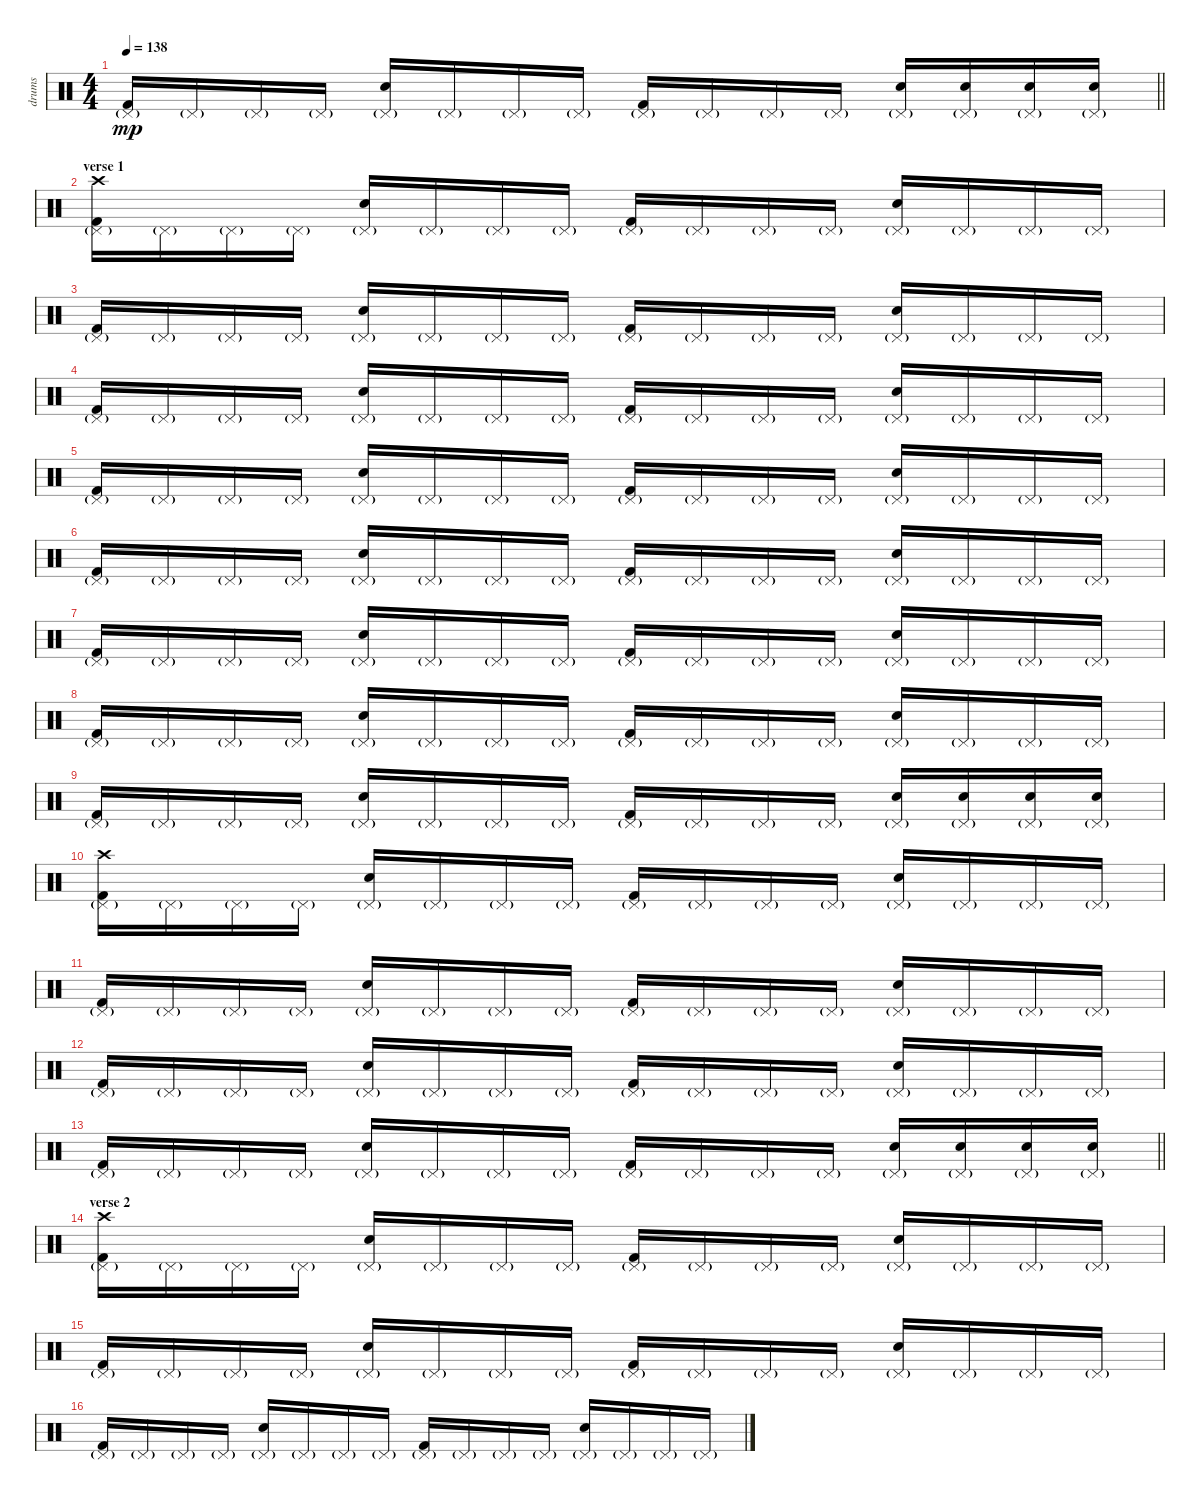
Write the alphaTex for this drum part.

\track ("drums" "drums") {instrument percussion}
\staff {score}
\articulation defaults
\ts (4 4)
\tempo 138
\clef neutral
\barLineRight lightlight
\ks c
("Kick (hit) 2" "Pedal Hi-Hat (hit)"{g}).16{dy mp} "Pedal Hi-Hat (hit)"{g}.16 "Pedal Hi-Hat (hit)"{g}.16 "Pedal Hi-Hat (hit)"{g}.16 ("Electric Snare (hit)" "Pedal Hi-Hat (hit)"{g}).16 "Pedal Hi-Hat (hit)"{g}.16 "Pedal Hi-Hat (hit)"{g}.16 "Pedal Hi-Hat (hit)"{g}.16 ("Kick (hit) 2" "Pedal Hi-Hat (hit)"{g}).16 "Pedal Hi-Hat (hit)"{g}.16 "Pedal Hi-Hat (hit)"{g}.16 "Pedal Hi-Hat (hit)"{g}.16 ("Electric Snare (hit)" "Pedal Hi-Hat (hit)"{g}).16 ("Electric Snare (hit)" "Pedal Hi-Hat (hit)"{g}).16 ("Electric Snare (hit)" "Pedal Hi-Hat (hit)"{g}).16 ("Electric Snare (hit)" "Pedal Hi-Hat (hit)"{g}).16 |
\section ("" "verse 1")
("Kick (hit) 2" "Pedal Hi-Hat (hit)"{g} "Crash high (hit)").16 "Pedal Hi-Hat (hit)"{g}.16 "Pedal Hi-Hat (hit)"{g}.16 "Pedal Hi-Hat (hit)"{g}.16 ("Electric Snare (hit)" "Pedal Hi-Hat (hit)"{g}).16 "Pedal Hi-Hat (hit)"{g}.16 "Pedal Hi-Hat (hit)"{g}.16 "Pedal Hi-Hat (hit)"{g}.16 ("Kick (hit) 2" "Pedal Hi-Hat (hit)"{g}).16 "Pedal Hi-Hat (hit)"{g}.16 "Pedal Hi-Hat (hit)"{g}.16 "Pedal Hi-Hat (hit)"{g}.16 ("Electric Snare (hit)" "Pedal Hi-Hat (hit)"{g}).16 "Pedal Hi-Hat (hit)"{g}.16 "Pedal Hi-Hat (hit)"{g}.16 "Pedal Hi-Hat (hit)"{g}.16 |
("Kick (hit) 2" "Pedal Hi-Hat (hit)"{g}).16 "Pedal Hi-Hat (hit)"{g}.16 "Pedal Hi-Hat (hit)"{g}.16 "Pedal Hi-Hat (hit)"{g}.16 ("Electric Snare (hit)" "Pedal Hi-Hat (hit)"{g}).16 "Pedal Hi-Hat (hit)"{g}.16 "Pedal Hi-Hat (hit)"{g}.16 "Pedal Hi-Hat (hit)"{g}.16 ("Kick (hit) 2" "Pedal Hi-Hat (hit)"{g}).16 "Pedal Hi-Hat (hit)"{g}.16 "Pedal Hi-Hat (hit)"{g}.16 "Pedal Hi-Hat (hit)"{g}.16 ("Electric Snare (hit)" "Pedal Hi-Hat (hit)"{g}).16 "Pedal Hi-Hat (hit)"{g}.16 "Pedal Hi-Hat (hit)"{g}.16 "Pedal Hi-Hat (hit)"{g}.16 |
("Kick (hit) 2" "Pedal Hi-Hat (hit)"{g}).16 "Pedal Hi-Hat (hit)"{g}.16 "Pedal Hi-Hat (hit)"{g}.16 "Pedal Hi-Hat (hit)"{g}.16 ("Electric Snare (hit)" "Pedal Hi-Hat (hit)"{g}).16 "Pedal Hi-Hat (hit)"{g}.16 "Pedal Hi-Hat (hit)"{g}.16 "Pedal Hi-Hat (hit)"{g}.16 ("Kick (hit) 2" "Pedal Hi-Hat (hit)"{g}).16 "Pedal Hi-Hat (hit)"{g}.16 "Pedal Hi-Hat (hit)"{g}.16 "Pedal Hi-Hat (hit)"{g}.16 ("Electric Snare (hit)" "Pedal Hi-Hat (hit)"{g}).16 "Pedal Hi-Hat (hit)"{g}.16 "Pedal Hi-Hat (hit)"{g}.16 "Pedal Hi-Hat (hit)"{g}.16 |
("Kick (hit) 2" "Pedal Hi-Hat (hit)"{g}).16 "Pedal Hi-Hat (hit)"{g}.16 "Pedal Hi-Hat (hit)"{g}.16 "Pedal Hi-Hat (hit)"{g}.16 ("Electric Snare (hit)" "Pedal Hi-Hat (hit)"{g}).16 "Pedal Hi-Hat (hit)"{g}.16 "Pedal Hi-Hat (hit)"{g}.16 "Pedal Hi-Hat (hit)"{g}.16 ("Kick (hit) 2" "Pedal Hi-Hat (hit)"{g}).16 "Pedal Hi-Hat (hit)"{g}.16 "Pedal Hi-Hat (hit)"{g}.16 "Pedal Hi-Hat (hit)"{g}.16 ("Electric Snare (hit)" "Pedal Hi-Hat (hit)"{g}).16 "Pedal Hi-Hat (hit)"{g}.16 "Pedal Hi-Hat (hit)"{g}.16 "Pedal Hi-Hat (hit)"{g}.16 |
("Kick (hit) 2" "Pedal Hi-Hat (hit)"{g}).16 "Pedal Hi-Hat (hit)"{g}.16 "Pedal Hi-Hat (hit)"{g}.16 "Pedal Hi-Hat (hit)"{g}.16 ("Electric Snare (hit)" "Pedal Hi-Hat (hit)"{g}).16 "Pedal Hi-Hat (hit)"{g}.16 "Pedal Hi-Hat (hit)"{g}.16 "Pedal Hi-Hat (hit)"{g}.16 ("Kick (hit) 2" "Pedal Hi-Hat (hit)"{g}).16 "Pedal Hi-Hat (hit)"{g}.16 "Pedal Hi-Hat (hit)"{g}.16 "Pedal Hi-Hat (hit)"{g}.16 ("Electric Snare (hit)" "Pedal Hi-Hat (hit)"{g}).16 "Pedal Hi-Hat (hit)"{g}.16 "Pedal Hi-Hat (hit)"{g}.16 "Pedal Hi-Hat (hit)"{g}.16 |
("Kick (hit) 2" "Pedal Hi-Hat (hit)"{g}).16 "Pedal Hi-Hat (hit)"{g}.16 "Pedal Hi-Hat (hit)"{g}.16 "Pedal Hi-Hat (hit)"{g}.16 ("Electric Snare (hit)" "Pedal Hi-Hat (hit)"{g}).16 "Pedal Hi-Hat (hit)"{g}.16 "Pedal Hi-Hat (hit)"{g}.16 "Pedal Hi-Hat (hit)"{g}.16 ("Kick (hit) 2" "Pedal Hi-Hat (hit)"{g}).16 "Pedal Hi-Hat (hit)"{g}.16 "Pedal Hi-Hat (hit)"{g}.16 "Pedal Hi-Hat (hit)"{g}.16 ("Electric Snare (hit)" "Pedal Hi-Hat (hit)"{g}).16 "Pedal Hi-Hat (hit)"{g}.16 "Pedal Hi-Hat (hit)"{g}.16 "Pedal Hi-Hat (hit)"{g}.16 |
("Kick (hit) 2" "Pedal Hi-Hat (hit)"{g}).16 "Pedal Hi-Hat (hit)"{g}.16 "Pedal Hi-Hat (hit)"{g}.16 "Pedal Hi-Hat (hit)"{g}.16 ("Electric Snare (hit)" "Pedal Hi-Hat (hit)"{g}).16 "Pedal Hi-Hat (hit)"{g}.16 "Pedal Hi-Hat (hit)"{g}.16 "Pedal Hi-Hat (hit)"{g}.16 ("Kick (hit) 2" "Pedal Hi-Hat (hit)"{g}).16 "Pedal Hi-Hat (hit)"{g}.16 "Pedal Hi-Hat (hit)"{g}.16 "Pedal Hi-Hat (hit)"{g}.16 ("Electric Snare (hit)" "Pedal Hi-Hat (hit)"{g}).16 "Pedal Hi-Hat (hit)"{g}.16 "Pedal Hi-Hat (hit)"{g}.16 "Pedal Hi-Hat (hit)"{g}.16 |
("Kick (hit) 2" "Pedal Hi-Hat (hit)"{g}).16 "Pedal Hi-Hat (hit)"{g}.16 "Pedal Hi-Hat (hit)"{g}.16 "Pedal Hi-Hat (hit)"{g}.16 ("Electric Snare (hit)" "Pedal Hi-Hat (hit)"{g}).16 "Pedal Hi-Hat (hit)"{g}.16 "Pedal Hi-Hat (hit)"{g}.16 "Pedal Hi-Hat (hit)"{g}.16 ("Kick (hit) 2" "Pedal Hi-Hat (hit)"{g}).16 "Pedal Hi-Hat (hit)"{g}.16 "Pedal Hi-Hat (hit)"{g}.16 "Pedal Hi-Hat (hit)"{g}.16 ("Electric Snare (hit)" "Pedal Hi-Hat (hit)"{g}).16 ("Electric Snare (hit)" "Pedal Hi-Hat (hit)"{g}).16 ("Electric Snare (hit)" "Pedal Hi-Hat (hit)"{g}).16 ("Electric Snare (hit)" "Pedal Hi-Hat (hit)"{g}).16 |
("Kick (hit) 2" "Pedal Hi-Hat (hit)"{g} "Crash high (hit)").16 "Pedal Hi-Hat (hit)"{g}.16 "Pedal Hi-Hat (hit)"{g}.16 "Pedal Hi-Hat (hit)"{g}.16 ("Electric Snare (hit)" "Pedal Hi-Hat (hit)"{g}).16 "Pedal Hi-Hat (hit)"{g}.16 "Pedal Hi-Hat (hit)"{g}.16 "Pedal Hi-Hat (hit)"{g}.16 ("Kick (hit) 2" "Pedal Hi-Hat (hit)"{g}).16 "Pedal Hi-Hat (hit)"{g}.16 "Pedal Hi-Hat (hit)"{g}.16 "Pedal Hi-Hat (hit)"{g}.16 ("Electric Snare (hit)" "Pedal Hi-Hat (hit)"{g}).16 "Pedal Hi-Hat (hit)"{g}.16 "Pedal Hi-Hat (hit)"{g}.16 "Pedal Hi-Hat (hit)"{g}.16 |
("Kick (hit) 2" "Pedal Hi-Hat (hit)"{g}).16 "Pedal Hi-Hat (hit)"{g}.16 "Pedal Hi-Hat (hit)"{g}.16 "Pedal Hi-Hat (hit)"{g}.16 ("Electric Snare (hit)" "Pedal Hi-Hat (hit)"{g}).16 "Pedal Hi-Hat (hit)"{g}.16 "Pedal Hi-Hat (hit)"{g}.16 "Pedal Hi-Hat (hit)"{g}.16 ("Kick (hit) 2" "Pedal Hi-Hat (hit)"{g}).16 "Pedal Hi-Hat (hit)"{g}.16 "Pedal Hi-Hat (hit)"{g}.16 "Pedal Hi-Hat (hit)"{g}.16 ("Electric Snare (hit)" "Pedal Hi-Hat (hit)"{g}).16 "Pedal Hi-Hat (hit)"{g}.16 "Pedal Hi-Hat (hit)"{g}.16 "Pedal Hi-Hat (hit)"{g}.16 |
("Kick (hit) 2" "Pedal Hi-Hat (hit)"{g}).16 "Pedal Hi-Hat (hit)"{g}.16 "Pedal Hi-Hat (hit)"{g}.16 "Pedal Hi-Hat (hit)"{g}.16 ("Electric Snare (hit)" "Pedal Hi-Hat (hit)"{g}).16 "Pedal Hi-Hat (hit)"{g}.16 "Pedal Hi-Hat (hit)"{g}.16 "Pedal Hi-Hat (hit)"{g}.16 ("Kick (hit) 2" "Pedal Hi-Hat (hit)"{g}).16 "Pedal Hi-Hat (hit)"{g}.16 "Pedal Hi-Hat (hit)"{g}.16 "Pedal Hi-Hat (hit)"{g}.16 ("Electric Snare (hit)" "Pedal Hi-Hat (hit)"{g}).16 "Pedal Hi-Hat (hit)"{g}.16 "Pedal Hi-Hat (hit)"{g}.16 "Pedal Hi-Hat (hit)"{g}.16 |
\barLineRight lightlight
("Kick (hit) 2" "Pedal Hi-Hat (hit)"{g}).16 "Pedal Hi-Hat (hit)"{g}.16 "Pedal Hi-Hat (hit)"{g}.16 "Pedal Hi-Hat (hit)"{g}.16 ("Electric Snare (hit)" "Pedal Hi-Hat (hit)"{g}).16 "Pedal Hi-Hat (hit)"{g}.16 "Pedal Hi-Hat (hit)"{g}.16 "Pedal Hi-Hat (hit)"{g}.16 ("Kick (hit) 2" "Pedal Hi-Hat (hit)"{g}).16 "Pedal Hi-Hat (hit)"{g}.16 "Pedal Hi-Hat (hit)"{g}.16 "Pedal Hi-Hat (hit)"{g}.16 ("Electric Snare (hit)" "Pedal Hi-Hat (hit)"{g}).16 ("Electric Snare (hit)" "Pedal Hi-Hat (hit)"{g}).16 ("Electric Snare (hit)" "Pedal Hi-Hat (hit)"{g}).16 ("Electric Snare (hit)" "Pedal Hi-Hat (hit)"{g}).16 |
\section ("" "verse 2")
("Kick (hit) 2" "Pedal Hi-Hat (hit)"{g} "Crash high (hit)").16 "Pedal Hi-Hat (hit)"{g}.16 "Pedal Hi-Hat (hit)"{g}.16 "Pedal Hi-Hat (hit)"{g}.16 ("Electric Snare (hit)" "Pedal Hi-Hat (hit)"{g}).16 "Pedal Hi-Hat (hit)"{g}.16 "Pedal Hi-Hat (hit)"{g}.16 "Pedal Hi-Hat (hit)"{g}.16 ("Kick (hit) 2" "Pedal Hi-Hat (hit)"{g}).16 "Pedal Hi-Hat (hit)"{g}.16 "Pedal Hi-Hat (hit)"{g}.16 "Pedal Hi-Hat (hit)"{g}.16 ("Electric Snare (hit)" "Pedal Hi-Hat (hit)"{g}).16 "Pedal Hi-Hat (hit)"{g}.16 "Pedal Hi-Hat (hit)"{g}.16 "Pedal Hi-Hat (hit)"{g}.16 |
("Kick (hit) 2" "Pedal Hi-Hat (hit)"{g}).16 "Pedal Hi-Hat (hit)"{g}.16 "Pedal Hi-Hat (hit)"{g}.16 "Pedal Hi-Hat (hit)"{g}.16 ("Electric Snare (hit)" "Pedal Hi-Hat (hit)"{g}).16 "Pedal Hi-Hat (hit)"{g}.16 "Pedal Hi-Hat (hit)"{g}.16 "Pedal Hi-Hat (hit)"{g}.16 ("Kick (hit) 2" "Pedal Hi-Hat (hit)"{g}).16 "Pedal Hi-Hat (hit)"{g}.16 "Pedal Hi-Hat (hit)"{g}.16 "Pedal Hi-Hat (hit)"{g}.16 ("Electric Snare (hit)" "Pedal Hi-Hat (hit)"{g}).16 "Pedal Hi-Hat (hit)"{g}.16 "Pedal Hi-Hat (hit)"{g}.16 "Pedal Hi-Hat (hit)"{g}.16 |
("Kick (hit) 2" "Pedal Hi-Hat (hit)"{g}).16 "Pedal Hi-Hat (hit)"{g}.16 "Pedal Hi-Hat (hit)"{g}.16 "Pedal Hi-Hat (hit)"{g}.16 ("Electric Snare (hit)" "Pedal Hi-Hat (hit)"{g}).16 "Pedal Hi-Hat (hit)"{g}.16 "Pedal Hi-Hat (hit)"{g}.16 "Pedal Hi-Hat (hit)"{g}.16 ("Kick (hit) 2" "Pedal Hi-Hat (hit)"{g}).16 "Pedal Hi-Hat (hit)"{g}.16 "Pedal Hi-Hat (hit)"{g}.16 "Pedal Hi-Hat (hit)"{g}.16 ("Electric Snare (hit)" "Pedal Hi-Hat (hit)"{g}).16 "Pedal Hi-Hat (hit)"{g}.16 "Pedal Hi-Hat (hit)"{g}.16 "Pedal Hi-Hat (hit)"{g}.16
